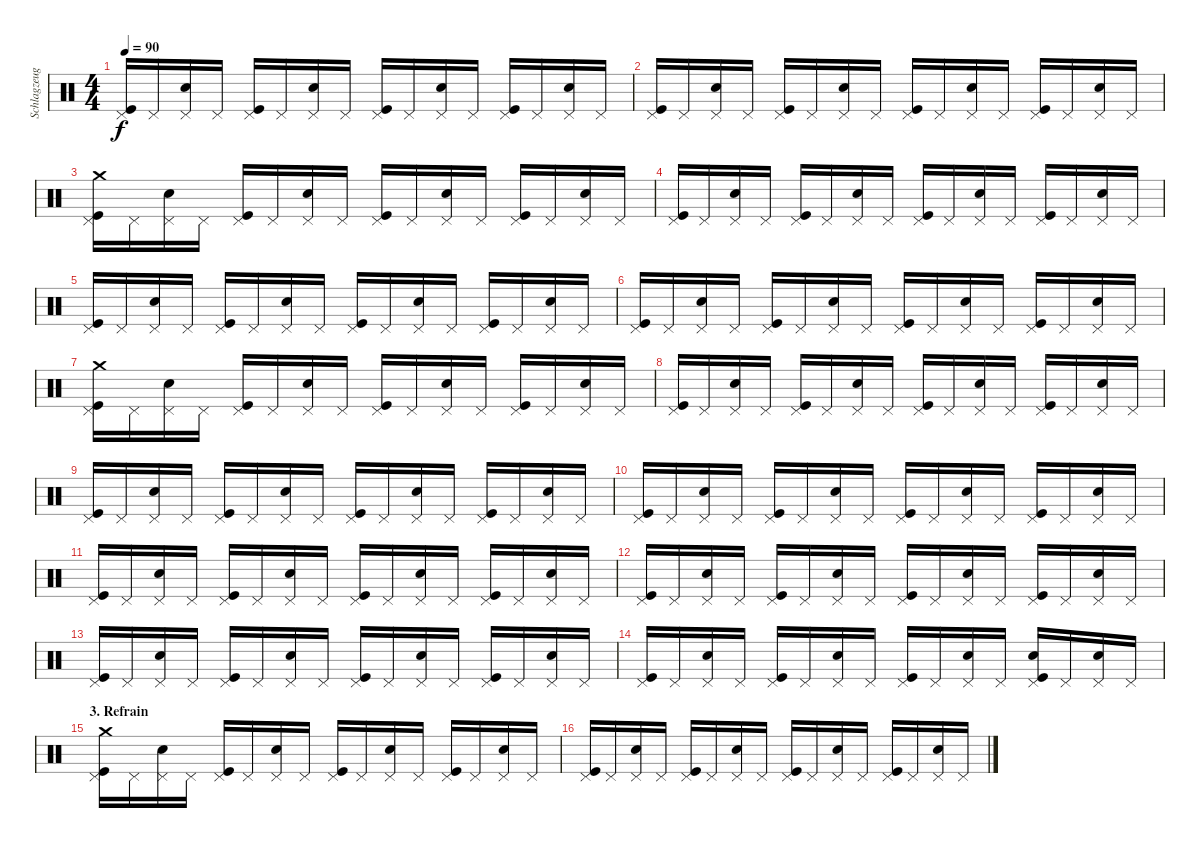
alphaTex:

\track ("Schlagzeug" "Schlagzeug") {instrument percussion}
\staff {score}
\articulation defaults
\ts (4 4)
\tempo 90
\clef neutral
\ks c
("Pedal Hi-Hat (hit)" "Kick (hit)").16{dy f} "Pedal Hi-Hat (hit)".16 ("Pedal Hi-Hat (hit)" "Electric Snare (hit)").16 "Pedal Hi-Hat (hit)".16 ("Pedal Hi-Hat (hit)" "Kick (hit)").16 "Pedal Hi-Hat (hit)".16 ("Pedal Hi-Hat (hit)" "Electric Snare (hit)").16 "Pedal Hi-Hat (hit)".16 ("Pedal Hi-Hat (hit)" "Kick (hit)").16 "Pedal Hi-Hat (hit)".16 ("Pedal Hi-Hat (hit)" "Electric Snare (hit)").16 "Pedal Hi-Hat (hit)".16 ("Pedal Hi-Hat (hit)" "Kick (hit)").16 "Pedal Hi-Hat (hit)".16 ("Pedal Hi-Hat (hit)" "Electric Snare (hit)").16 "Pedal Hi-Hat (hit)".16 |
("Pedal Hi-Hat (hit)" "Kick (hit)").16 "Pedal Hi-Hat (hit)".16 ("Pedal Hi-Hat (hit)" "Electric Snare (hit)").16 "Pedal Hi-Hat (hit)".16 ("Pedal Hi-Hat (hit)" "Kick (hit)").16 "Pedal Hi-Hat (hit)".16 ("Pedal Hi-Hat (hit)" "Electric Snare (hit)").16 "Pedal Hi-Hat (hit)".16 ("Pedal Hi-Hat (hit)" "Kick (hit)").16 "Pedal Hi-Hat (hit)".16 ("Pedal Hi-Hat (hit)" "Electric Snare (hit)").16 "Pedal Hi-Hat (hit)".16 ("Pedal Hi-Hat (hit)" "Kick (hit)").16 "Pedal Hi-Hat (hit)".16 ("Pedal Hi-Hat (hit)" "Electric Snare (hit)").16 "Pedal Hi-Hat (hit)".16 |
("Pedal Hi-Hat (hit)" "Crash medium (hit)" "Kick (hit)").16 "Pedal Hi-Hat (hit)".16 ("Pedal Hi-Hat (hit)" "Electric Snare (hit)").16 "Pedal Hi-Hat (hit)".16 ("Pedal Hi-Hat (hit)" "Kick (hit)").16 "Pedal Hi-Hat (hit)".16 ("Pedal Hi-Hat (hit)" "Electric Snare (hit)").16 "Pedal Hi-Hat (hit)".16 ("Pedal Hi-Hat (hit)" "Kick (hit)").16 "Pedal Hi-Hat (hit)".16 ("Pedal Hi-Hat (hit)" "Electric Snare (hit)").16 "Pedal Hi-Hat (hit)".16 ("Pedal Hi-Hat (hit)" "Kick (hit)").16 "Pedal Hi-Hat (hit)".16 ("Pedal Hi-Hat (hit)" "Electric Snare (hit)").16 "Pedal Hi-Hat (hit)".16 |
("Pedal Hi-Hat (hit)" "Kick (hit)").16 "Pedal Hi-Hat (hit)".16 ("Pedal Hi-Hat (hit)" "Electric Snare (hit)").16 "Pedal Hi-Hat (hit)".16 ("Pedal Hi-Hat (hit)" "Kick (hit)").16 "Pedal Hi-Hat (hit)".16 ("Pedal Hi-Hat (hit)" "Electric Snare (hit)").16 "Pedal Hi-Hat (hit)".16 ("Pedal Hi-Hat (hit)" "Kick (hit)").16 "Pedal Hi-Hat (hit)".16 ("Pedal Hi-Hat (hit)" "Electric Snare (hit)").16 "Pedal Hi-Hat (hit)".16 ("Pedal Hi-Hat (hit)" "Kick (hit)").16 "Pedal Hi-Hat (hit)".16 ("Pedal Hi-Hat (hit)" "Electric Snare (hit)").16 "Pedal Hi-Hat (hit)".16 |
("Pedal Hi-Hat (hit)" "Kick (hit)").16 "Pedal Hi-Hat (hit)".16 ("Pedal Hi-Hat (hit)" "Electric Snare (hit)").16 "Pedal Hi-Hat (hit)".16 ("Pedal Hi-Hat (hit)" "Kick (hit)").16 "Pedal Hi-Hat (hit)".16 ("Pedal Hi-Hat (hit)" "Electric Snare (hit)").16 "Pedal Hi-Hat (hit)".16 ("Pedal Hi-Hat (hit)" "Kick (hit)").16 "Pedal Hi-Hat (hit)".16 ("Pedal Hi-Hat (hit)" "Electric Snare (hit)").16 "Pedal Hi-Hat (hit)".16 ("Pedal Hi-Hat (hit)" "Kick (hit)").16 "Pedal Hi-Hat (hit)".16 ("Pedal Hi-Hat (hit)" "Electric Snare (hit)").16 "Pedal Hi-Hat (hit)".16 |
("Pedal Hi-Hat (hit)" "Kick (hit)").16 "Pedal Hi-Hat (hit)".16 ("Pedal Hi-Hat (hit)" "Electric Snare (hit)").16 "Pedal Hi-Hat (hit)".16 ("Pedal Hi-Hat (hit)" "Kick (hit)").16 "Pedal Hi-Hat (hit)".16 ("Pedal Hi-Hat (hit)" "Electric Snare (hit)").16 "Pedal Hi-Hat (hit)".16 ("Pedal Hi-Hat (hit)" "Kick (hit)").16 "Pedal Hi-Hat (hit)".16 ("Pedal Hi-Hat (hit)" "Electric Snare (hit)").16 "Pedal Hi-Hat (hit)".16 ("Pedal Hi-Hat (hit)" "Kick (hit)").16 "Pedal Hi-Hat (hit)".16 ("Pedal Hi-Hat (hit)" "Electric Snare (hit)").16 "Pedal Hi-Hat (hit)".16 |
("Pedal Hi-Hat (hit)" "Kick (hit)" "Crash medium (hit)").16 "Pedal Hi-Hat (hit)".16 ("Pedal Hi-Hat (hit)" "Electric Snare (hit)").16 "Pedal Hi-Hat (hit)".16 ("Pedal Hi-Hat (hit)" "Kick (hit)").16 "Pedal Hi-Hat (hit)".16 ("Pedal Hi-Hat (hit)" "Electric Snare (hit)").16 "Pedal Hi-Hat (hit)".16 ("Pedal Hi-Hat (hit)" "Kick (hit)").16 "Pedal Hi-Hat (hit)".16 ("Pedal Hi-Hat (hit)" "Electric Snare (hit)").16 "Pedal Hi-Hat (hit)".16 ("Pedal Hi-Hat (hit)" "Kick (hit)").16 "Pedal Hi-Hat (hit)".16 ("Pedal Hi-Hat (hit)" "Electric Snare (hit)").16 "Pedal Hi-Hat (hit)".16 |
("Pedal Hi-Hat (hit)" "Kick (hit)").16 "Pedal Hi-Hat (hit)".16 ("Pedal Hi-Hat (hit)" "Electric Snare (hit)").16 "Pedal Hi-Hat (hit)".16 ("Pedal Hi-Hat (hit)" "Kick (hit)").16 "Pedal Hi-Hat (hit)".16 ("Pedal Hi-Hat (hit)" "Electric Snare (hit)").16 "Pedal Hi-Hat (hit)".16 ("Pedal Hi-Hat (hit)" "Kick (hit)").16 "Pedal Hi-Hat (hit)".16 ("Pedal Hi-Hat (hit)" "Electric Snare (hit)").16 "Pedal Hi-Hat (hit)".16 ("Pedal Hi-Hat (hit)" "Kick (hit)").16 "Pedal Hi-Hat (hit)".16 ("Pedal Hi-Hat (hit)" "Electric Snare (hit)").16 "Pedal Hi-Hat (hit)".16 |
("Pedal Hi-Hat (hit)" "Kick (hit)").16 "Pedal Hi-Hat (hit)".16 ("Pedal Hi-Hat (hit)" "Electric Snare (hit)").16 "Pedal Hi-Hat (hit)".16 ("Pedal Hi-Hat (hit)" "Kick (hit)").16 "Pedal Hi-Hat (hit)".16 ("Pedal Hi-Hat (hit)" "Electric Snare (hit)").16 "Pedal Hi-Hat (hit)".16 ("Pedal Hi-Hat (hit)" "Kick (hit)").16 "Pedal Hi-Hat (hit)".16 ("Pedal Hi-Hat (hit)" "Electric Snare (hit)").16 "Pedal Hi-Hat (hit)".16 ("Pedal Hi-Hat (hit)" "Kick (hit)").16 "Pedal Hi-Hat (hit)".16 ("Pedal Hi-Hat (hit)" "Electric Snare (hit)").16 "Pedal Hi-Hat (hit)".16 |
("Pedal Hi-Hat (hit)" "Kick (hit)").16 "Pedal Hi-Hat (hit)".16 ("Pedal Hi-Hat (hit)" "Electric Snare (hit)").16 "Pedal Hi-Hat (hit)".16 ("Pedal Hi-Hat (hit)" "Kick (hit)").16 "Pedal Hi-Hat (hit)".16 ("Pedal Hi-Hat (hit)" "Electric Snare (hit)").16 "Pedal Hi-Hat (hit)".16 ("Pedal Hi-Hat (hit)" "Kick (hit)").16 "Pedal Hi-Hat (hit)".16 ("Pedal Hi-Hat (hit)" "Electric Snare (hit)").16 "Pedal Hi-Hat (hit)".16 ("Pedal Hi-Hat (hit)" "Kick (hit)").16 "Pedal Hi-Hat (hit)".16 ("Pedal Hi-Hat (hit)" "Electric Snare (hit)").16 "Pedal Hi-Hat (hit)".16 |
("Pedal Hi-Hat (hit)" "Kick (hit)").16 "Pedal Hi-Hat (hit)".16 ("Pedal Hi-Hat (hit)" "Electric Snare (hit)").16 "Pedal Hi-Hat (hit)".16 ("Pedal Hi-Hat (hit)" "Kick (hit)").16 "Pedal Hi-Hat (hit)".16 ("Pedal Hi-Hat (hit)" "Electric Snare (hit)").16 "Pedal Hi-Hat (hit)".16 ("Pedal Hi-Hat (hit)" "Kick (hit)").16 "Pedal Hi-Hat (hit)".16 ("Pedal Hi-Hat (hit)" "Electric Snare (hit)").16 "Pedal Hi-Hat (hit)".16 ("Pedal Hi-Hat (hit)" "Kick (hit)").16 "Pedal Hi-Hat (hit)".16 ("Pedal Hi-Hat (hit)" "Electric Snare (hit)").16 "Pedal Hi-Hat (hit)".16 |
("Pedal Hi-Hat (hit)" "Kick (hit)").16 "Pedal Hi-Hat (hit)".16 ("Pedal Hi-Hat (hit)" "Electric Snare (hit)").16 "Pedal Hi-Hat (hit)".16 ("Pedal Hi-Hat (hit)" "Kick (hit)").16 "Pedal Hi-Hat (hit)".16 ("Pedal Hi-Hat (hit)" "Electric Snare (hit)").16 "Pedal Hi-Hat (hit)".16 ("Pedal Hi-Hat (hit)" "Kick (hit)").16 "Pedal Hi-Hat (hit)".16 ("Pedal Hi-Hat (hit)" "Electric Snare (hit)").16 "Pedal Hi-Hat (hit)".16 ("Pedal Hi-Hat (hit)" "Kick (hit)").16 "Pedal Hi-Hat (hit)".16 ("Pedal Hi-Hat (hit)" "Electric Snare (hit)").16 "Pedal Hi-Hat (hit)".16 |
("Pedal Hi-Hat (hit)" "Kick (hit)").16 "Pedal Hi-Hat (hit)".16 ("Pedal Hi-Hat (hit)" "Electric Snare (hit)").16 "Pedal Hi-Hat (hit)".16 ("Pedal Hi-Hat (hit)" "Kick (hit)").16 "Pedal Hi-Hat (hit)".16 ("Pedal Hi-Hat (hit)" "Electric Snare (hit)").16 "Pedal Hi-Hat (hit)".16 ("Pedal Hi-Hat (hit)" "Kick (hit)").16 "Pedal Hi-Hat (hit)".16 ("Pedal Hi-Hat (hit)" "Electric Snare (hit)").16 "Pedal Hi-Hat (hit)".16 ("Pedal Hi-Hat (hit)" "Kick (hit)").16 "Pedal Hi-Hat (hit)".16 ("Pedal Hi-Hat (hit)" "Electric Snare (hit)").16 "Pedal Hi-Hat (hit)".16 |
("Pedal Hi-Hat (hit)" "Kick (hit)").16 "Pedal Hi-Hat (hit)".16 ("Pedal Hi-Hat (hit)" "Electric Snare (hit)").16 "Pedal Hi-Hat (hit)".16 ("Pedal Hi-Hat (hit)" "Kick (hit)").16 "Pedal Hi-Hat (hit)".16 ("Pedal Hi-Hat (hit)" "Electric Snare (hit)").16 "Pedal Hi-Hat (hit)".16 ("Pedal Hi-Hat (hit)" "Kick (hit)").16 "Pedal Hi-Hat (hit)".16 ("Pedal Hi-Hat (hit)" "Electric Snare (hit)").16 "Pedal Hi-Hat (hit)".16 ("Pedal Hi-Hat (hit)" "Kick (hit)" "Electric Snare (hit)").16 "Pedal Hi-Hat (hit)".16 ("Pedal Hi-Hat (hit)" "Electric Snare (hit)").16 "Pedal Hi-Hat (hit)".16 |
\section ("" "3. Refrain")
("Pedal Hi-Hat (hit)" "Kick (hit)" "Crash medium (hit)").16 "Pedal Hi-Hat (hit)".16 ("Pedal Hi-Hat (hit)" "Electric Snare (hit)").16 "Pedal Hi-Hat (hit)".16 ("Pedal Hi-Hat (hit)" "Kick (hit)").16 "Pedal Hi-Hat (hit)".16 ("Pedal Hi-Hat (hit)" "Electric Snare (hit)").16 "Pedal Hi-Hat (hit)".16 ("Pedal Hi-Hat (hit)" "Kick (hit)").16 "Pedal Hi-Hat (hit)".16 ("Pedal Hi-Hat (hit)" "Electric Snare (hit)").16 "Pedal Hi-Hat (hit)".16 ("Pedal Hi-Hat (hit)" "Kick (hit)").16 "Pedal Hi-Hat (hit)".16 ("Pedal Hi-Hat (hit)" "Electric Snare (hit)").16 "Pedal Hi-Hat (hit)".16 |
("Pedal Hi-Hat (hit)" "Kick (hit)").16 "Pedal Hi-Hat (hit)".16 ("Pedal Hi-Hat (hit)" "Electric Snare (hit)").16 "Pedal Hi-Hat (hit)".16 ("Pedal Hi-Hat (hit)" "Kick (hit)").16 "Pedal Hi-Hat (hit)".16 ("Pedal Hi-Hat (hit)" "Electric Snare (hit)").16 "Pedal Hi-Hat (hit)".16 ("Pedal Hi-Hat (hit)" "Kick (hit)").16 "Pedal Hi-Hat (hit)".16 ("Pedal Hi-Hat (hit)" "Electric Snare (hit)").16 "Pedal Hi-Hat (hit)".16 ("Pedal Hi-Hat (hit)" "Kick (hit)").16 "Pedal Hi-Hat (hit)".16 ("Pedal Hi-Hat (hit)" "Electric Snare (hit)").16 "Pedal Hi-Hat (hit)".16
